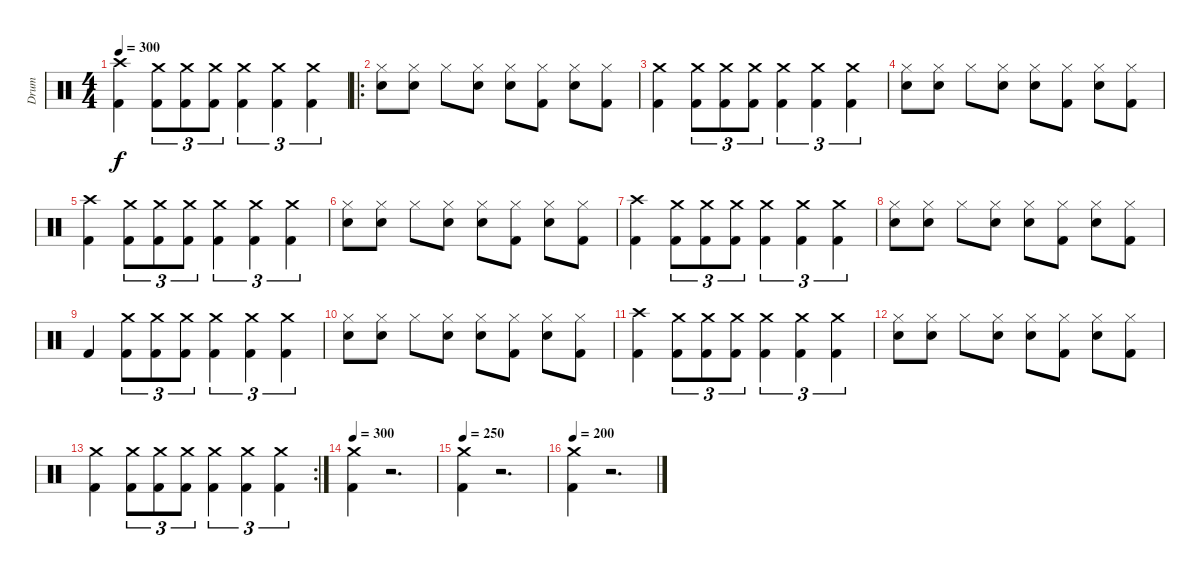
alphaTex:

\track ("Drum" "Drum") {instrument percussion}
\staff {score}
\articulation defaults
\ts (4 4)
\tempo 300
\clef neutral
\ks c
("Crash high (hit)" "Kick (hit) 2").4{dy f} ("Crash medium (hit)" "Kick (hit) 2").8{tu (3 2)} ("Crash medium (hit)" "Kick (hit) 2").8{tu (3 2)} ("Crash medium (hit)" "Kick (hit) 2").8{tu (3 2)} ("Crash medium (hit)" "Kick (hit) 2").4{tu (3 2)} ("Crash medium (hit)" "Kick (hit) 2").4{tu (3 2)} ("Crash medium (hit)" "Kick (hit) 2").4{tu (3 2)} |
\ro
("Hi-Hat (closed)" "Snare (hit) 2").8 ("Hi-Hat (closed)" "Snare (hit) 2").8 "Hi-Hat (closed)".8 ("Hi-Hat (closed)" "Snare (hit) 2").8 ("Hi-Hat (closed)" "Snare (hit) 2").8 ("Hi-Hat (closed)" "Kick (hit) 2").8 ("Hi-Hat (closed)" "Snare (hit) 2").8 ("Hi-Hat (closed)" "Kick (hit) 2").8 |
("Crash medium (hit)" "Kick (hit) 2").4 ("Crash medium (hit)" "Kick (hit) 2").8{tu (3 2)} ("Crash medium (hit)" "Kick (hit) 2").8{tu (3 2)} ("Crash medium (hit)" "Kick (hit) 2").8{tu (3 2)} ("Crash medium (hit)" "Kick (hit) 2").4{tu (3 2)} ("Crash medium (hit)" "Kick (hit) 2").4{tu (3 2)} ("Crash medium (hit)" "Kick (hit) 2").4{tu (3 2)} |
("Hi-Hat (closed)" "Snare (hit) 2").8 ("Hi-Hat (closed)" "Snare (hit) 2").8 "Hi-Hat (closed)".8 ("Hi-Hat (closed)" "Snare (hit) 2").8 ("Hi-Hat (closed)" "Snare (hit) 2").8 ("Hi-Hat (closed)" "Kick (hit) 2").8 ("Hi-Hat (closed)" "Snare (hit) 2").8 ("Hi-Hat (closed)" "Kick (hit) 2").8 |
("Crash high (hit)" "Kick (hit) 2").4 ("Crash medium (hit)" "Kick (hit) 2").8{tu (3 2)} ("Crash medium (hit)" "Kick (hit) 2").8{tu (3 2)} ("Crash medium (hit)" "Kick (hit) 2").8{tu (3 2)} ("Crash medium (hit)" "Kick (hit) 2").4{tu (3 2)} ("Crash medium (hit)" "Kick (hit) 2").4{tu (3 2)} ("Crash medium (hit)" "Kick (hit) 2").4{tu (3 2)} |
("Hi-Hat (closed)" "Snare (hit) 2").8 ("Hi-Hat (closed)" "Snare (hit) 2").8 "Hi-Hat (closed)".8 ("Hi-Hat (closed)" "Snare (hit) 2").8 ("Hi-Hat (closed)" "Snare (hit) 2").8 ("Hi-Hat (closed)" "Kick (hit) 2").8 ("Hi-Hat (closed)" "Snare (hit) 2").8 ("Hi-Hat (closed)" "Kick (hit) 2").8 |
("Crash high (hit)" "Kick (hit) 2").4 ("Crash medium (hit)" "Kick (hit) 2").8{tu (3 2)} ("Crash medium (hit)" "Kick (hit) 2").8{tu (3 2)} ("Crash medium (hit)" "Kick (hit) 2").8{tu (3 2)} ("Crash medium (hit)" "Kick (hit) 2").4{tu (3 2)} ("Crash medium (hit)" "Kick (hit) 2").4{tu (3 2)} ("Crash medium (hit)" "Kick (hit) 2").4{tu (3 2)} |
("Hi-Hat (closed)" "Snare (hit) 2").8 ("Hi-Hat (closed)" "Snare (hit) 2").8 "Hi-Hat (closed)".8 ("Hi-Hat (closed)" "Snare (hit) 2").8 ("Hi-Hat (closed)" "Snare (hit) 2").8 ("Hi-Hat (closed)" "Kick (hit) 2").8 ("Hi-Hat (closed)" "Snare (hit) 2").8 ("Hi-Hat (closed)" "Kick (hit) 2").8 |
"Kick (hit) 2".4 ("Crash medium (hit)" "Kick (hit) 2").8{tu (3 2)} ("Crash medium (hit)" "Kick (hit) 2").8{tu (3 2)} ("Crash medium (hit)" "Kick (hit) 2").8{tu (3 2)} ("Crash medium (hit)" "Kick (hit) 2").4{tu (3 2)} ("Crash medium (hit)" "Kick (hit) 2").4{tu (3 2)} ("Crash medium (hit)" "Kick (hit) 2").4{tu (3 2)} |
("Hi-Hat (closed)" "Snare (hit) 2").8 ("Hi-Hat (closed)" "Snare (hit) 2").8 "Hi-Hat (closed)".8 ("Hi-Hat (closed)" "Snare (hit) 2").8 ("Hi-Hat (closed)" "Snare (hit) 2").8 ("Hi-Hat (closed)" "Kick (hit) 2").8 ("Hi-Hat (closed)" "Snare (hit) 2").8 ("Hi-Hat (closed)" "Kick (hit) 2").8 |
("Crash high (hit)" "Kick (hit) 2").4 ("Crash medium (hit)" "Kick (hit) 2").8{tu (3 2)} ("Crash medium (hit)" "Kick (hit) 2").8{tu (3 2)} ("Crash medium (hit)" "Kick (hit) 2").8{tu (3 2)} ("Crash medium (hit)" "Kick (hit) 2").4{tu (3 2)} ("Crash medium (hit)" "Kick (hit) 2").4{tu (3 2)} ("Crash medium (hit)" "Kick (hit) 2").4{tu (3 2)} |
("Hi-Hat (closed)" "Snare (hit) 2").8 ("Hi-Hat (closed)" "Snare (hit) 2").8 "Hi-Hat (closed)".8 ("Hi-Hat (closed)" "Snare (hit) 2").8 ("Hi-Hat (closed)" "Snare (hit) 2").8 ("Hi-Hat (closed)" "Kick (hit) 2").8 ("Hi-Hat (closed)" "Snare (hit) 2").8 ("Hi-Hat (closed)" "Kick (hit) 2").8 |
\rc 2
("Crash medium (hit)" "Kick (hit) 2").4 ("Crash medium (hit)" "Kick (hit) 2").8{tu (3 2)} ("Crash medium (hit)" "Kick (hit) 2").8{tu (3 2)} ("Crash medium (hit)" "Kick (hit) 2").8{tu (3 2)} ("Crash medium (hit)" "Kick (hit) 2").4{tu (3 2)} ("Crash medium (hit)" "Kick (hit) 2").4{tu (3 2)} ("Crash medium (hit)" "Kick (hit) 2").4{tu (3 2)} |
\tempo 300
("Crash medium (hit)" "Kick (hit) 2").4 r.2{d} |
\tempo 250
("Crash medium (hit)" "Kick (hit) 2").4 r.2{d} |
\tempo 200
("Crash medium (hit)" "Kick (hit) 2").4 r.2{d}
